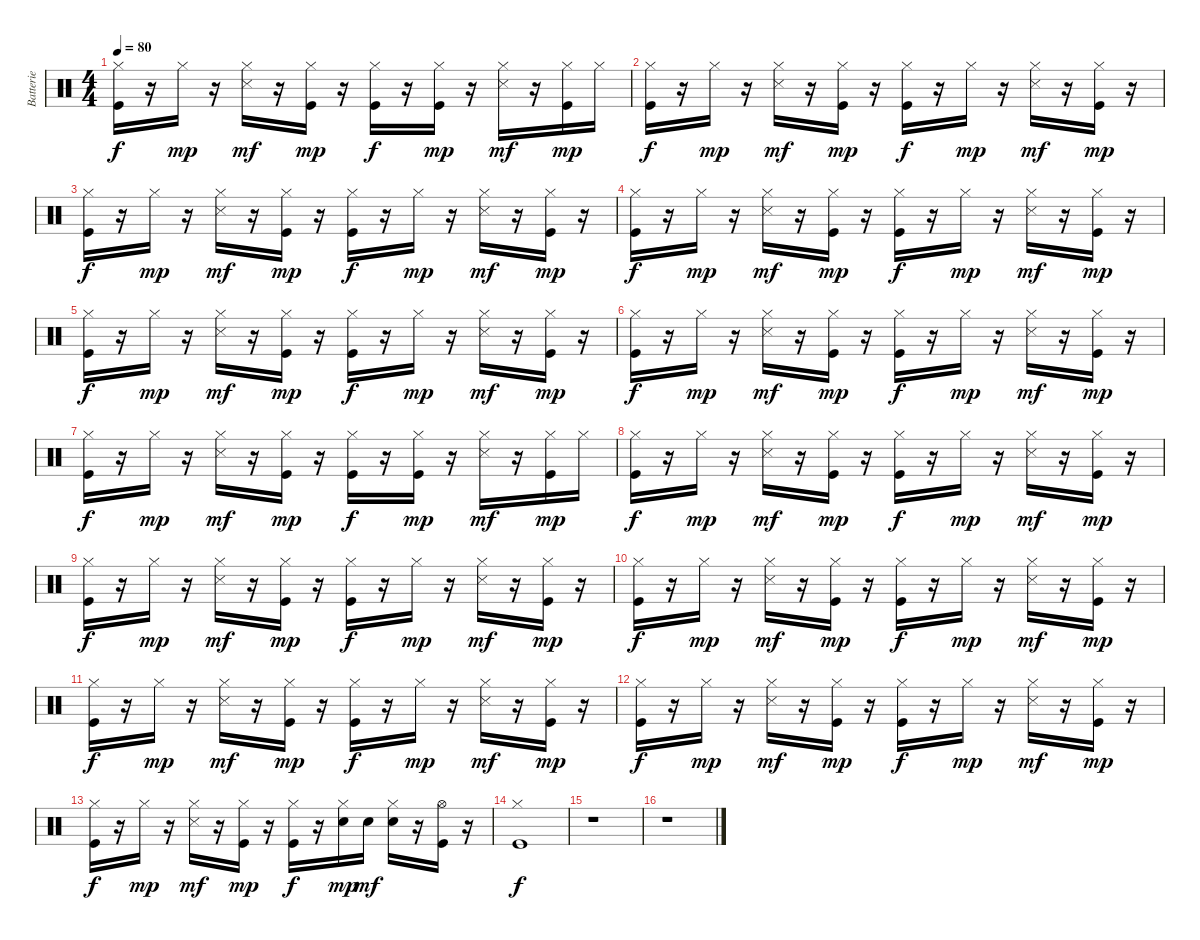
\track ("Batterie" "Batterie") {instrument percussion}
\staff {score}
\articulation defaults
\ts (4 4)
\tempo 80
\clef neutral
\ks c
("Kick (hit)" "Hi-Hat (closed)").16{dy f} r.16 "Hi-Hat (closed)".16{dy mp} r.16 ("Hi-Hat (closed)" "Snare (side stick) 3").16{dy mf} r.16 ("Kick (hit)" "Hi-Hat (closed)").16{dy mp} r.16 ("Kick (hit)" "Hi-Hat (closed)").16{dy f} r.16 ("Kick (hit)" "Hi-Hat (closed)").16{dy mp} r.16 ("Hi-Hat (closed)" "Snare (side stick) 3").16{dy mf} r.16 ("Kick (hit)" "Hi-Hat (closed)").16{dy mp} "Hi-Hat (closed)".16 |
("Kick (hit)" "Hi-Hat (closed)").16{dy f} r.16 "Hi-Hat (closed)".16{dy mp} r.16 ("Hi-Hat (closed)" "Snare (side stick) 3").16{dy mf} r.16 ("Kick (hit)" "Hi-Hat (closed)").16{dy mp} r.16 ("Kick (hit)" "Hi-Hat (closed)").16{dy f} r.16 "Hi-Hat (closed)".16{dy mp} r.16 ("Hi-Hat (closed)" "Snare (side stick) 3").16{dy mf} r.16 ("Kick (hit)" "Hi-Hat (closed)").16{dy mp} r.16 |
("Kick (hit)" "Hi-Hat (closed)").16{dy f} r.16 "Hi-Hat (closed)".16{dy mp} r.16 ("Hi-Hat (closed)" "Snare (side stick) 3").16{dy mf} r.16 ("Kick (hit)" "Hi-Hat (closed)").16{dy mp} r.16 ("Kick (hit)" "Hi-Hat (closed)").16{dy f} r.16 "Hi-Hat (closed)".16{dy mp} r.16 ("Hi-Hat (closed)" "Snare (side stick) 3").16{dy mf} r.16 ("Kick (hit)" "Hi-Hat (closed)").16{dy mp} r.16 |
("Kick (hit)" "Hi-Hat (closed)").16{dy f} r.16 "Hi-Hat (closed)".16{dy mp} r.16 ("Hi-Hat (closed)" "Snare (side stick) 3").16{dy mf} r.16 ("Kick (hit)" "Hi-Hat (closed)").16{dy mp} r.16 ("Kick (hit)" "Hi-Hat (closed)").16{dy f} r.16 "Hi-Hat (closed)".16{dy mp} r.16 ("Hi-Hat (closed)" "Snare (side stick) 3").16{dy mf} r.16 ("Kick (hit)" "Hi-Hat (closed)").16{dy mp} r.16 |
("Kick (hit)" "Hi-Hat (closed)").16{dy f} r.16 "Hi-Hat (closed)".16{dy mp} r.16 ("Hi-Hat (closed)" "Snare (side stick) 3").16{dy mf} r.16 ("Kick (hit)" "Hi-Hat (closed)").16{dy mp} r.16 ("Kick (hit)" "Hi-Hat (closed)").16{dy f} r.16 "Hi-Hat (closed)".16{dy mp} r.16 ("Hi-Hat (closed)" "Snare (side stick) 3").16{dy mf} r.16 ("Kick (hit)" "Hi-Hat (closed)").16{dy mp} r.16 |
("Kick (hit)" "Hi-Hat (closed)").16{dy f} r.16 "Hi-Hat (closed)".16{dy mp} r.16 ("Hi-Hat (closed)" "Snare (side stick) 3").16{dy mf} r.16 ("Kick (hit)" "Hi-Hat (closed)").16{dy mp} r.16 ("Kick (hit)" "Hi-Hat (closed)").16{dy f} r.16 "Hi-Hat (closed)".16{dy mp} r.16 ("Hi-Hat (closed)" "Snare (side stick) 3").16{dy mf} r.16 ("Kick (hit)" "Hi-Hat (closed)").16{dy mp} r.16 |
("Kick (hit)" "Hi-Hat (closed)").16{dy f} r.16 "Hi-Hat (closed)".16{dy mp} r.16 ("Hi-Hat (closed)" "Snare (side stick) 3").16{dy mf} r.16 ("Kick (hit)" "Hi-Hat (closed)").16{dy mp} r.16 ("Kick (hit)" "Hi-Hat (closed)").16{dy f} r.16 ("Kick (hit)" "Hi-Hat (closed)").16{dy mp} r.16 ("Hi-Hat (closed)" "Snare (side stick) 3").16{dy mf} r.16 ("Kick (hit)" "Hi-Hat (closed)").16{dy mp} "Hi-Hat (closed)".16 |
("Kick (hit)" "Hi-Hat (closed)").16{dy f} r.16 "Hi-Hat (closed)".16{dy mp} r.16 ("Hi-Hat (closed)" "Snare (side stick) 3").16{dy mf} r.16 ("Kick (hit)" "Hi-Hat (closed)").16{dy mp} r.16 ("Kick (hit)" "Hi-Hat (closed)").16{dy f} r.16 "Hi-Hat (closed)".16{dy mp} r.16 ("Hi-Hat (closed)" "Snare (side stick) 3").16{dy mf} r.16 ("Kick (hit)" "Hi-Hat (closed)").16{dy mp} r.16 |
("Kick (hit)" "Hi-Hat (closed)").16{dy f} r.16 "Hi-Hat (closed)".16{dy mp} r.16 ("Hi-Hat (closed)" "Snare (side stick) 3").16{dy mf} r.16 ("Kick (hit)" "Hi-Hat (closed)").16{dy mp} r.16 ("Kick (hit)" "Hi-Hat (closed)").16{dy f} r.16 "Hi-Hat (closed)".16{dy mp} r.16 ("Hi-Hat (closed)" "Snare (side stick) 3").16{dy mf} r.16 ("Kick (hit)" "Hi-Hat (closed)").16{dy mp} r.16 |
("Kick (hit)" "Hi-Hat (closed)").16{dy f} r.16 "Hi-Hat (closed)".16{dy mp} r.16 ("Hi-Hat (closed)" "Snare (side stick) 3").16{dy mf} r.16 ("Kick (hit)" "Hi-Hat (closed)").16{dy mp} r.16 ("Kick (hit)" "Hi-Hat (closed)").16{dy f} r.16 "Hi-Hat (closed)".16{dy mp} r.16 ("Hi-Hat (closed)" "Snare (side stick) 3").16{dy mf} r.16 ("Kick (hit)" "Hi-Hat (closed)").16{dy mp} r.16 |
("Kick (hit)" "Hi-Hat (closed)").16{dy f} r.16 "Hi-Hat (closed)".16{dy mp} r.16 ("Hi-Hat (closed)" "Snare (side stick) 3").16{dy mf} r.16 ("Kick (hit)" "Hi-Hat (closed)").16{dy mp} r.16 ("Kick (hit)" "Hi-Hat (closed)").16{dy f} r.16 "Hi-Hat (closed)".16{dy mp} r.16 ("Hi-Hat (closed)" "Snare (side stick) 3").16{dy mf} r.16 ("Kick (hit)" "Hi-Hat (closed)").16{dy mp} r.16 |
("Kick (hit)" "Hi-Hat (closed)").16{dy f} r.16 "Hi-Hat (closed)".16{dy mp} r.16 ("Hi-Hat (closed)" "Snare (side stick) 3").16{dy mf} r.16 ("Kick (hit)" "Hi-Hat (closed)").16{dy mp} r.16 ("Kick (hit)" "Hi-Hat (closed)").16{dy f} r.16 "Hi-Hat (closed)".16{dy mp} r.16 ("Hi-Hat (closed)" "Snare (side stick) 3").16{dy mf} r.16 ("Kick (hit)" "Hi-Hat (closed)").16{dy mp} r.16 |
("Kick (hit)" "Hi-Hat (closed)").16{dy f} r.16 "Hi-Hat (closed)".16{dy mp} r.16 ("Hi-Hat (closed)" "Snare (side stick) 3").16{dy mf} r.16 ("Kick (hit)" "Hi-Hat (closed)").16{dy mp} r.16 ("Kick (hit)" "Hi-Hat (closed)").16{dy f} r.16 ("Snare (hit) 2" "Hi-Hat (closed)").16{dy mp} "Snare (hit) 2".16{dy mf} ("Snare (hit) 2" "Hi-Hat (closed)").16 r.16 ("Kick (hit)" "Hi-Hat (open)").16 r.16 |
("Kick (hit)" "Hi-Hat (closed)").1{dy f} |
r.1 |
r.1
